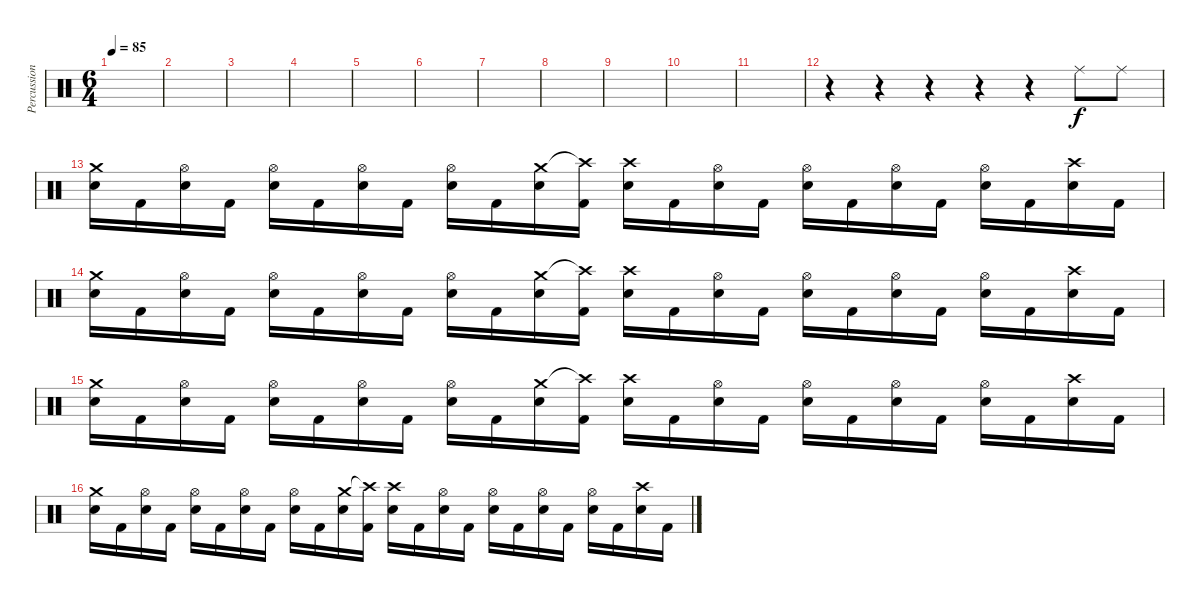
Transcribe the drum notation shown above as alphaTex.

\track ("Percussion" "Percussion") {instrument percussion}
\staff {score}
\articulation defaults
\ts (6 4)
\tempo 85
\clef neutral
\ks c
|
|
|
|
|
|
|
|
|
|
|
r.4 r.4 r.4 r.4 r.4 "Ride (middle)".8 "Ride (middle)".8 |
("Crash medium (hit)" "Snare (hit) 2").16 "Kick (hit) 2".16 ("Hi-Hat (open)" "Snare (hit) 2").16 "Kick (hit) 2".16 ("Hi-Hat (open)" "Snare (hit) 2").16 "Kick (hit) 2".16 ("Hi-Hat (open)" "Snare (hit) 2").16 "Kick (hit) 2".16 ("Hi-Hat (open)" "Snare (hit) 2").16 "Kick (hit) 2".16 ("Crash medium (hit)" "Snare (hit) 2").16 ("Crash high (hit)"{t} "Kick (hit) 2").16 ("Crash high (hit)" "Snare (hit) 2").16 "Kick (hit) 2".16 ("Hi-Hat (open)" "Snare (hit) 2").16 "Kick (hit) 2".16 ("Hi-Hat (open)" "Snare (hit) 2").16 "Kick (hit) 2".16 ("Hi-Hat (open)" "Snare (hit) 2").16 "Kick (hit) 2".16 ("Hi-Hat (open)" "Snare (hit) 2").16 "Kick (hit) 2".16 ("Crash high (hit)" "Snare (hit) 2").16 "Kick (hit) 2".16 |
("Crash medium (hit)" "Snare (hit) 2").16 "Kick (hit) 2".16 ("Hi-Hat (open)" "Snare (hit) 2").16 "Kick (hit) 2".16 ("Hi-Hat (open)" "Snare (hit) 2").16 "Kick (hit) 2".16 ("Hi-Hat (open)" "Snare (hit) 2").16 "Kick (hit) 2".16 ("Hi-Hat (open)" "Snare (hit) 2").16 "Kick (hit) 2".16 ("Crash medium (hit)" "Snare (hit) 2").16 ("Crash high (hit)"{t} "Kick (hit) 2").16 ("Crash high (hit)" "Snare (hit) 2").16 "Kick (hit) 2".16 ("Hi-Hat (open)" "Snare (hit) 2").16 "Kick (hit) 2".16 ("Hi-Hat (open)" "Snare (hit) 2").16 "Kick (hit) 2".16 ("Hi-Hat (open)" "Snare (hit) 2").16 "Kick (hit) 2".16 ("Hi-Hat (open)" "Snare (hit) 2").16 "Kick (hit) 2".16 ("Crash high (hit)" "Snare (hit) 2").16 "Kick (hit) 2".16 |
("Crash medium (hit)" "Snare (hit) 2").16 "Kick (hit) 2".16 ("Hi-Hat (open)" "Snare (hit) 2").16 "Kick (hit) 2".16 ("Hi-Hat (open)" "Snare (hit) 2").16 "Kick (hit) 2".16 ("Hi-Hat (open)" "Snare (hit) 2").16 "Kick (hit) 2".16 ("Hi-Hat (open)" "Snare (hit) 2").16 "Kick (hit) 2".16 ("Crash medium (hit)" "Snare (hit) 2").16 ("Crash high (hit)"{t} "Kick (hit) 2").16 ("Crash high (hit)" "Snare (hit) 2").16 "Kick (hit) 2".16 ("Hi-Hat (open)" "Snare (hit) 2").16 "Kick (hit) 2".16 ("Hi-Hat (open)" "Snare (hit) 2").16 "Kick (hit) 2".16 ("Hi-Hat (open)" "Snare (hit) 2").16 "Kick (hit) 2".16 ("Hi-Hat (open)" "Snare (hit) 2").16 "Kick (hit) 2".16 ("Crash high (hit)" "Snare (hit) 2").16 "Kick (hit) 2".16 |
("Crash medium (hit)" "Snare (hit) 2").16 "Kick (hit) 2".16 ("Hi-Hat (open)" "Snare (hit) 2").16 "Kick (hit) 2".16 ("Hi-Hat (open)" "Snare (hit) 2").16 "Kick (hit) 2".16 ("Hi-Hat (open)" "Snare (hit) 2").16 "Kick (hit) 2".16 ("Hi-Hat (open)" "Snare (hit) 2").16 "Kick (hit) 2".16 ("Crash medium (hit)" "Snare (hit) 2").16 ("Crash high (hit)"{t} "Kick (hit) 2").16 ("Crash high (hit)" "Snare (hit) 2").16 "Kick (hit) 2".16 ("Hi-Hat (open)" "Snare (hit) 2").16 "Kick (hit) 2".16 ("Hi-Hat (open)" "Snare (hit) 2").16 "Kick (hit) 2".16 ("Hi-Hat (open)" "Snare (hit) 2").16 "Kick (hit) 2".16 ("Hi-Hat (open)" "Snare (hit) 2").16 "Kick (hit) 2".16 ("Crash high (hit)" "Snare (hit) 2").16 "Kick (hit) 2".16
